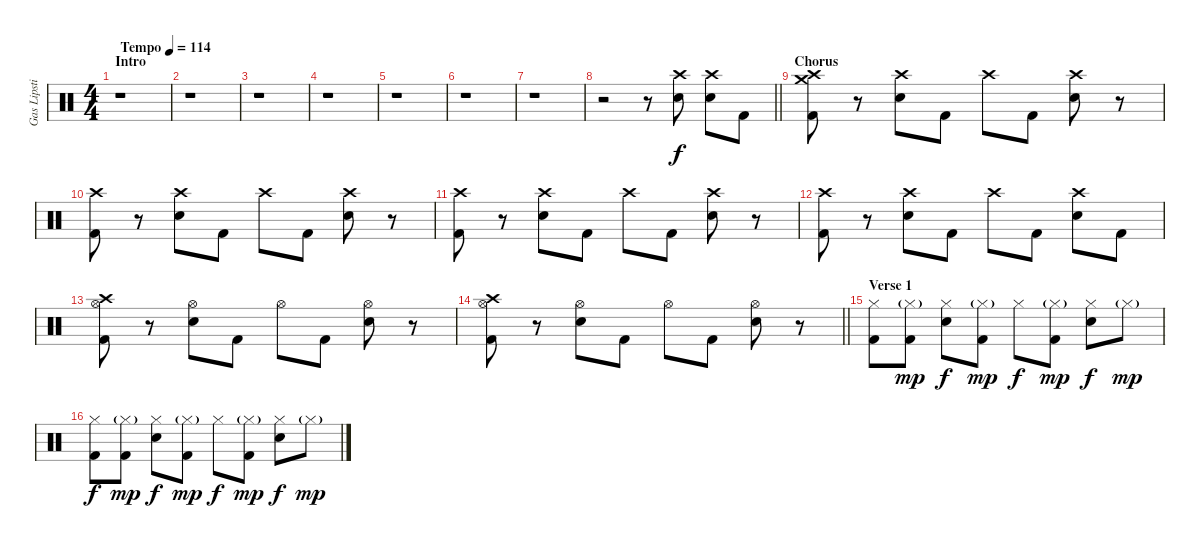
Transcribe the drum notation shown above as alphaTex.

\track ("Gas Lipstick (Drums)" "Gas Lipsti") {instrument percussion}
\staff {score}
\articulation defaults
\ts (4 4)
\section ("" "Intro")
\tempo (114 "Tempo")
\clef neutral
\ks c
r.1{dy f} |
r.1 |
r.1 |
r.1 |
r.1 |
r.1 |
r.1 |
\barLineRight lightlight
r.2 r.8 ("Crash high (hit)" "Snare (hit) 2").8 ("Crash high (hit)" "Snare (hit) 2").8 "Kick (hit) 2".8 |
\section ("" "Chorus")
("Crash medium (hit)" "Crash high (hit)" "Kick (hit) 2").8 r.8 ("Crash high (hit)" "Snare (hit) 2").8 "Kick (hit) 2".8 "Crash high (hit)".8 "Kick (hit) 2".8 ("Crash high (hit)" "Snare (hit) 2").8 r.8 |
("Crash high (hit)" "Kick (hit) 2").8 r.8 ("Crash high (hit)" "Snare (hit) 2").8 "Kick (hit) 2".8 "Crash high (hit)".8 "Kick (hit) 2".8 ("Crash high (hit)" "Snare (hit) 2").8 r.8 |
("Crash high (hit)" "Kick (hit) 2").8 r.8 ("Crash high (hit)" "Snare (hit) 2").8 "Kick (hit) 2".8 "Crash high (hit)".8 "Kick (hit) 2".8 ("Crash high (hit)" "Snare (hit) 2").8 r.8 |
("Crash high (hit)" "Kick (hit) 2").8 r.8 ("Crash high (hit)" "Snare (hit) 2").8 "Kick (hit) 2".8 "Crash high (hit)".8 "Kick (hit) 2".8 ("Crash high (hit)" "Snare (hit) 2").8 "Kick (hit) 2".8 |
("Crash high (hit)" "Hi-Hat (open)" "Kick (hit) 2").8 r.8 ("Hi-Hat (open)" "Snare (hit) 2").8 "Kick (hit) 2".8 "Hi-Hat (open)".8 "Kick (hit) 2".8 ("Hi-Hat (open)" "Snare (hit) 2").8 r.8 |
\barLineRight lightlight
("Crash high (hit)" "Hi-Hat (open)" "Kick (hit) 2").8 r.8 ("Hi-Hat (open)" "Snare (hit) 2").8 "Kick (hit) 2".8 "Hi-Hat (open)".8 "Kick (hit) 2".8 ("Hi-Hat (open)" "Snare (hit) 2").8 r.8 |
\section ("" "Verse 1")
("Hi-Hat (closed)" "Kick (hit) 2").8 ("Hi-Hat (closed)"{g} "Kick (hit) 2").8{dy mp} ("Hi-Hat (closed)" "Snare (hit) 2").8{dy f} ("Hi-Hat (closed)"{g} "Kick (hit) 2").8{dy mp} "Hi-Hat (closed)".8{dy f} ("Hi-Hat (closed)"{g} "Kick (hit) 2").8{dy mp} ("Hi-Hat (closed)" "Snare (hit) 2").8{dy f} "Hi-Hat (closed)"{g}.8{dy mp} |
("Hi-Hat (closed)" "Kick (hit) 2").8{dy f} ("Hi-Hat (closed)"{g} "Kick (hit) 2").8{dy mp} ("Hi-Hat (closed)" "Snare (hit) 2").8{dy f} ("Hi-Hat (closed)"{g} "Kick (hit) 2").8{dy mp} "Hi-Hat (closed)".8{dy f} ("Hi-Hat (closed)"{g} "Kick (hit) 2").8{dy mp} ("Hi-Hat (closed)" "Snare (hit) 2").8{dy f} "Hi-Hat (closed)"{g}.8{dy mp}
